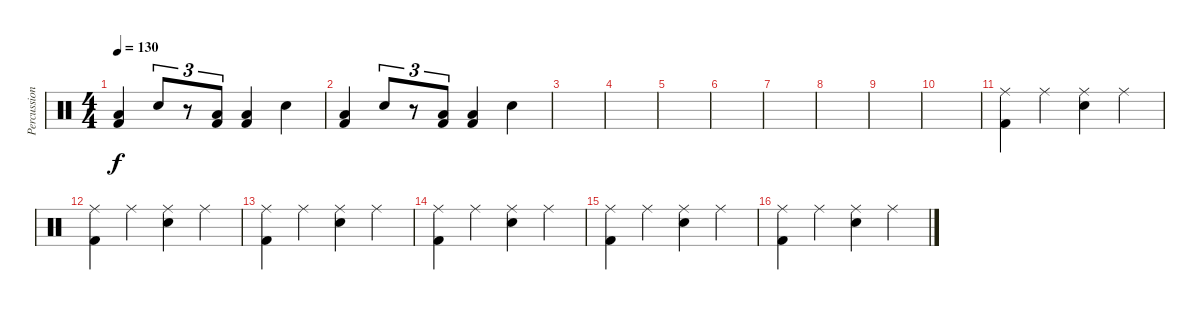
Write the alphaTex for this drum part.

\track ("Percussion" "Percussion") {instrument percussion}
\staff {score}
\articulation defaults
\ts (4 4)
\tempo 130
\clef neutral
\ks c
("Low Floor Tom (hit)" "Kick (hit) 2").4{dy f} "Snare (hit) 2".8{tu (3 2)} r.8{tu (3 2)} ("Low Floor Tom (hit)" "Kick (hit) 2").8{tu (3 2)} ("Low Floor Tom (hit)" "Kick (hit) 2").4 "Snare (hit) 2".4 |
("Low Floor Tom (hit)" "Kick (hit) 2").4 "Snare (hit) 2".8{tu (3 2)} r.8{tu (3 2)} ("Low Floor Tom (hit)" "Kick (hit) 2").8{tu (3 2)} ("Low Floor Tom (hit)" "Kick (hit) 2").4 "Snare (hit) 2".4 |
|
|
|
|
|
|
|
|
("Ride (middle)" "Kick (hit) 2").4 "Ride (middle)".4 ("Ride (middle)" "Snare (hit) 2").4 "Ride (middle)".4 |
("Ride (middle)" "Kick (hit) 2").4 "Ride (middle)".4 ("Ride (middle)" "Snare (hit) 2").4 "Ride (middle)".4 |
("Ride (middle)" "Kick (hit) 2").4 "Ride (middle)".4 ("Ride (middle)" "Snare (hit) 2").4 "Ride (middle)".4 |
("Ride (middle)" "Kick (hit) 2").4 "Ride (middle)".4 ("Ride (middle)" "Snare (hit) 2").4 "Ride (middle)".4 |
("Ride (middle)" "Kick (hit) 2").4 "Ride (middle)".4 ("Ride (middle)" "Snare (hit) 2").4 "Ride (middle)".4 |
("Ride (middle)" "Kick (hit) 2").4 "Ride (middle)".4 ("Ride (middle)" "Snare (hit) 2").4 "Ride (middle)".4
